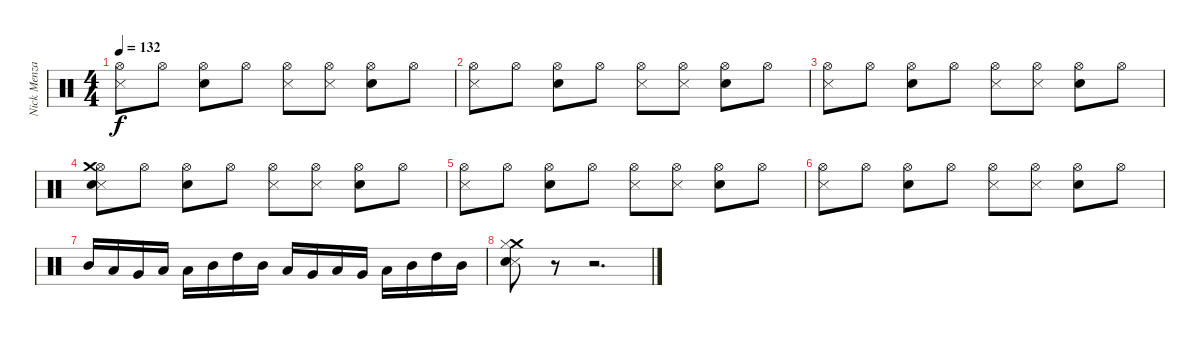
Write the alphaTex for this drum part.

\track ("Nick Menza (Drums)" "Nick Menza") {instrument percussion}
\staff {score}
\articulation defaults
\ts (4 4)
\tempo 132
\clef neutral
\ks c
("Hi-Hat (open)" "Metronome (hit)").8{dy f} "Hi-Hat (open)".8 ("Electric Snare (hit)" "Hi-Hat (open)").8 "Hi-Hat (open)".8 ("Metronome (hit)" "Hi-Hat (open)").8 ("Metronome (hit)" "Hi-Hat (open)").8 ("Electric Snare (hit)" "Hi-Hat (open)").8 "Hi-Hat (open)".8 |
("Hi-Hat (open)" "Metronome (hit)").8 "Hi-Hat (open)".8 ("Electric Snare (hit)" "Hi-Hat (open)").8 "Hi-Hat (open)".8 ("Hi-Hat (open)" "Metronome (hit)").8 ("Hi-Hat (open)" "Metronome (hit)").8 ("Hi-Hat (open)" "Electric Snare (hit)").8 "Hi-Hat (open)".8 |
("Hi-Hat (open)" "Metronome (hit)").8 "Hi-Hat (open)".8 ("Hi-Hat (open)" "Electric Snare (hit)").8 "Hi-Hat (open)".8 ("Metronome (hit)" "Hi-Hat (open)").8 ("Metronome (hit)" "Hi-Hat (open)").8 ("Electric Snare (hit)" "Hi-Hat (open)").8 "Hi-Hat (open)".8 |
("Metronome (hit)" "Electric Snare (hit)" "Hi-Hat (open)" "Crash medium (hit)").8 "Hi-Hat (open)".8 ("Hi-Hat (open)" "Electric Snare (hit)").8 "Hi-Hat (open)".8 ("Hi-Hat (open)" "Metronome (hit)").8 ("Hi-Hat (open)" "Metronome (hit)").8 ("Hi-Hat (open)" "Electric Snare (hit)").8 "Hi-Hat (open)".8 |
("Hi-Hat (open)" "Metronome (hit)").8 "Hi-Hat (open)".8 ("Hi-Hat (open)" "Electric Snare (hit)").8 "Hi-Hat (open)".8 ("Metronome (hit)" "Hi-Hat (open)").8 ("Metronome (hit)" "Hi-Hat (open)").8 ("Electric Snare (hit)" "Hi-Hat (open)").8 "Hi-Hat (open)".8 |
("Hi-Hat (open)" "Metronome (hit)").8 "Hi-Hat (open)".8 ("Hi-Hat (open)" "Electric Snare (hit)").8 "Hi-Hat (open)".8 ("Metronome (hit)" "Hi-Hat (open)").8 ("Metronome (hit)" "Hi-Hat (open)").8 ("Electric Snare (hit)" "Hi-Hat (open)").8 "Hi-Hat (open)".8 |
"Mid Tom (hit)".16 "Low Tom (hit)".16 "Very Low Tom (hit)".16 "Low Floor Tom (hit)".16 "Low Tom (hit)".16 "Mid Tom (hit)".16 "High Tom (hit)".16 "Mid Tom (hit)".16 "Low Tom (hit)".16 "Very Low Tom (hit)".16 "Low Floor Tom (hit)".16 "Very Low Tom (hit)".16 "Low Tom (hit)".16 "Mid Tom (hit)".16 "High Tom (hit)".16 "Mid Tom (hit)".16 |
("Metronome (hit)" "Electric Snare (hit)" "Crash medium (hit)" "Hi-Hat (closed)").8 r.8 r.2{d}
